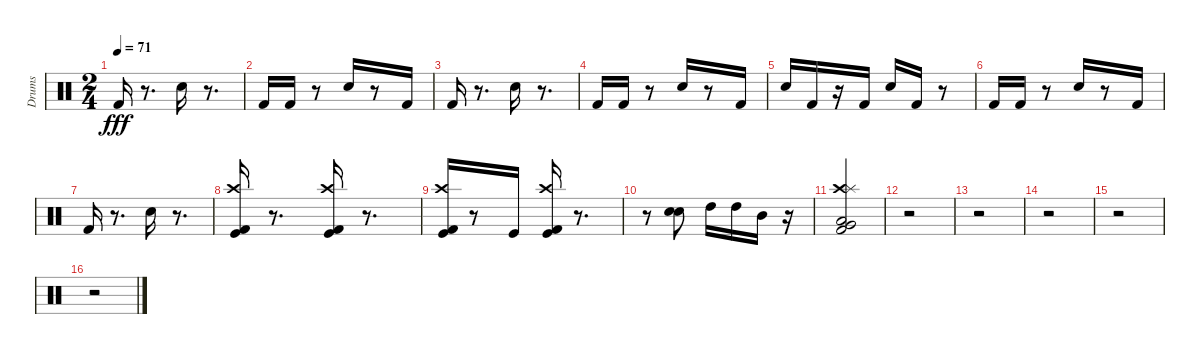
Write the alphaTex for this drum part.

\track ("Drums" "Drums") {instrument percussion}
\staff {score}
\articulation defaults
\ts (2 4)
\tempo 71
\clef neutral
\ks c "Kick (hit) 2".16{dy fff}
r.8{d} "Snare (hit) 2".16 r.8{d} |
"Kick (hit) 2".16 "Kick (hit) 2".16 r.8 "Snare (hit) 2".16 r.8 "Kick (hit) 2".16 |
"Kick (hit) 2".16 r.8{d} "Snare (hit) 2".16 r.8{d} |
"Kick (hit) 2".16 "Kick (hit) 2".16 r.8 "Snare (hit) 2".16 r.8 "Kick (hit) 2".16 |
"Snare (hit) 2".16 "Kick (hit) 2".16 r.16 "Kick (hit) 2".16 "Snare (hit) 2".16 "Kick (hit) 2".16 r.8 |
"Kick (hit) 2".16 "Kick (hit) 2".16 r.8 "Snare (hit) 2".16 r.8 "Kick (hit) 2".16 |
"Kick (hit) 2".16 r.8{d} "Snare (hit) 2".16 r.8{d} |
("Crash high (hit)" "Kick (hit)" "Kick (hit) 2").16 r.8{d} ("Crash high (hit)" "Kick (hit)" "Kick (hit) 2").16 r.8{d} |
("Crash high (hit)" "Kick (hit)" "Kick (hit) 2").16 r.8 "Kick (hit)".16 ("Crash high (hit)" "Kick (hit)" "Kick (hit) 2").16 r.8{d} |
r.8 ("Electric Snare (hit)" "Electric Snare (hit)").8 "High Tom (hit)".16 "High Tom (hit)".16 "Mid Tom (hit)".16 r.16 |
("Crash high (hit)" "Splash (hit)" "Very Low Tom (hit)" "Kick (hit) 2" "Low Floor Tom (hit)").2 |
r.2 |
r.2 |
r.2 |
r.2 |
r.2
